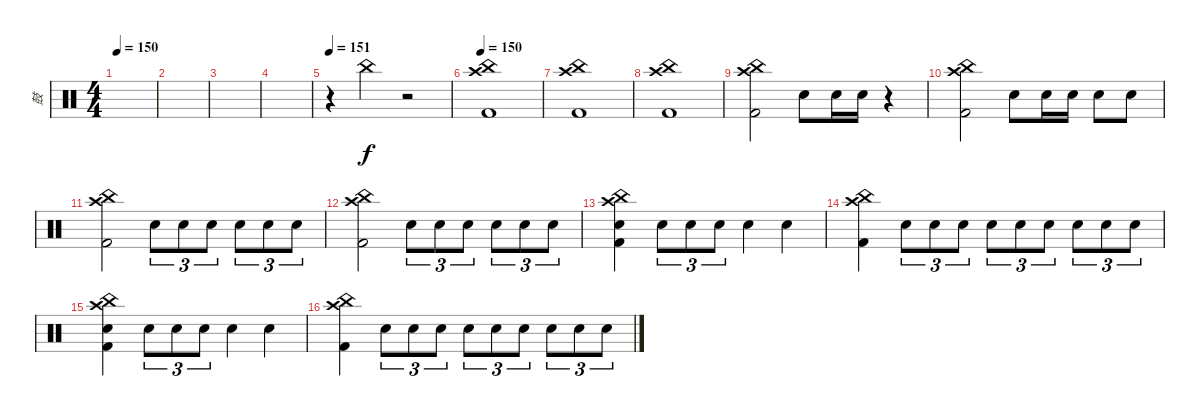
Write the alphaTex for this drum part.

\track ("鼓" "鼓") {instrument percussion}
\staff {score}
\articulation defaults
\ts (4 4)
\tempo 150
\clef neutral
\ks c
|
|
|
|
\tempo 151
r.4 "China (hit)".4 r.2 |
\tempo 150
("Kick (hit) 2" "China (hit)" "Crash high (hit)").1 |
("Kick (hit) 2" "China (hit)" "Crash high (hit)").1 |
("Kick (hit) 2" "China (hit)" "Crash high (hit)").1 |
("Kick (hit) 2" "China (hit)" "Crash high (hit)").2 "Snare (hit) 2".8 "Snare (hit) 2".16 "Snare (hit) 2".16 r.4 |
("Kick (hit) 2" "China (hit)" "Crash high (hit)").2 "Snare (hit) 2".8 "Snare (hit) 2".16 "Snare (hit) 2".16 "Snare (hit) 2".8 "Snare (hit) 2".8 |
("Kick (hit) 2" "China (hit)" "Crash high (hit)").2 "Snare (hit) 2".8{tu (3 2)} "Snare (hit) 2".8{tu (3 2)} "Snare (hit) 2".8{tu (3 2)} "Snare (hit) 2".8{tu (3 2)} "Snare (hit) 2".8{tu (3 2)} "Snare (hit) 2".8{tu (3 2)} |
("Kick (hit) 2" "China (hit)" "Crash high (hit)").2 "Snare (hit) 2".8{tu (3 2)} "Snare (hit) 2".8{tu (3 2)} "Snare (hit) 2".8{tu (3 2)} "Snare (hit) 2".8{tu (3 2)} "Snare (hit) 2".8{tu (3 2)} "Snare (hit) 2".8{tu (3 2)} |
("Snare (hit) 2" "Kick (hit) 2" "China (hit)" "Crash high (hit)").4 "Snare (hit) 2".8{tu (3 2)} "Snare (hit) 2".8{tu (3 2)} "Snare (hit) 2".8{tu (3 2)} "Snare (hit) 2".4 "Snare (hit) 2".4 |
("Kick (hit) 2" "China (hit)" "Crash high (hit)").4 "Snare (hit) 2".8{tu (3 2)} "Snare (hit) 2".8{tu (3 2)} "Snare (hit) 2".8{tu (3 2)} "Snare (hit) 2".8{tu (3 2)} "Snare (hit) 2".8{tu (3 2)} "Snare (hit) 2".8{tu (3 2)} "Snare (hit) 2".8{tu (3 2)} "Snare (hit) 2".8{tu (3 2)} "Snare (hit) 2".8{tu (3 2)} |
("Snare (hit) 2" "Kick (hit) 2" "China (hit)" "Crash high (hit)").4 "Snare (hit) 2".8{tu (3 2)} "Snare (hit) 2".8{tu (3 2)} "Snare (hit) 2".8{tu (3 2)} "Snare (hit) 2".4 "Snare (hit) 2".4 |
("Kick (hit) 2" "China (hit)" "Crash high (hit)").4 "Snare (hit) 2".8{tu (3 2)} "Snare (hit) 2".8{tu (3 2)} "Snare (hit) 2".8{tu (3 2)} "Snare (hit) 2".8{tu (3 2)} "Snare (hit) 2".8{tu (3 2)} "Snare (hit) 2".8{tu (3 2)} "Snare (hit) 2".8{tu (3 2)} "Snare (hit) 2".8{tu (3 2)} "Snare (hit) 2".8{tu (3 2)}
